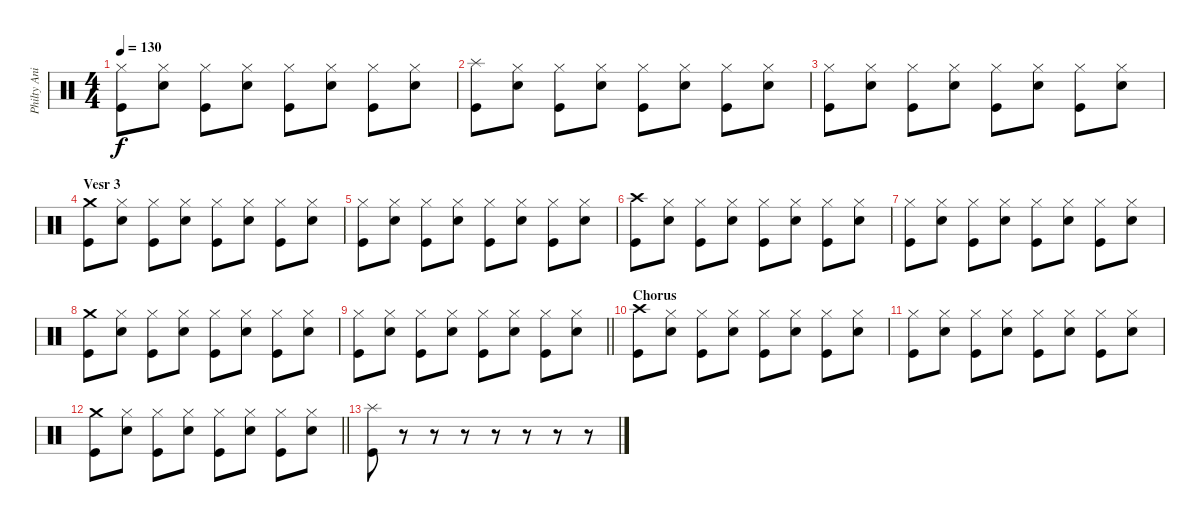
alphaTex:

\track ("Philty Animal Taylor" "Philty Ani") {instrument percussion}
\staff {score}
\articulation defaults
\ts (4 4)
\tempo 130
\clef neutral
\ks c
("Hi-Hat (closed)" "Kick (hit)").8{dy f} ("Hi-Hat (closed)" "Electric Snare (hit)").8 ("Hi-Hat (closed)" "Kick (hit)").8 ("Hi-Hat (closed)" "Electric Snare (hit)").8 ("Hi-Hat (closed)" "Kick (hit)").8 ("Hi-Hat (closed)" "Electric Snare (hit)").8 ("Hi-Hat (closed)" "Kick (hit)").8 ("Hi-Hat (closed)" "Electric Snare (hit)").8 |
("Splash (hit)" "Kick (hit)").8 ("Hi-Hat (closed)" "Electric Snare (hit)").8 ("Hi-Hat (closed)" "Kick (hit)").8 ("Hi-Hat (closed)" "Electric Snare (hit)").8 ("Hi-Hat (closed)" "Kick (hit)").8 ("Hi-Hat (closed)" "Electric Snare (hit)").8 ("Hi-Hat (closed)" "Kick (hit)").8 ("Hi-Hat (closed)" "Electric Snare (hit)").8 |
("Hi-Hat (closed)" "Kick (hit)").8 ("Hi-Hat (closed)" "Electric Snare (hit)").8 ("Hi-Hat (closed)" "Kick (hit)").8 ("Hi-Hat (closed)" "Electric Snare (hit)").8 ("Hi-Hat (closed)" "Kick (hit)").8 ("Hi-Hat (closed)" "Electric Snare (hit)").8 ("Hi-Hat (closed)" "Kick (hit)").8 ("Hi-Hat (closed)" "Electric Snare (hit)").8 |
\section ("" "Vesr 3")
("Crash medium (hit)" "Kick (hit)").8 ("Hi-Hat (closed)" "Electric Snare (hit)").8 ("Hi-Hat (closed)" "Kick (hit)").8 ("Hi-Hat (closed)" "Electric Snare (hit)").8 ("Hi-Hat (closed)" "Kick (hit)").8 ("Hi-Hat (closed)" "Electric Snare (hit)").8 ("Hi-Hat (closed)" "Kick (hit)").8 ("Hi-Hat (closed)" "Electric Snare (hit)").8 |
("Hi-Hat (closed)" "Kick (hit)").8 ("Hi-Hat (closed)" "Electric Snare (hit)").8 ("Hi-Hat (closed)" "Kick (hit)").8 ("Hi-Hat (closed)" "Electric Snare (hit)").8 ("Hi-Hat (closed)" "Kick (hit)").8 ("Hi-Hat (closed)" "Electric Snare (hit)").8 ("Hi-Hat (closed)" "Kick (hit)").8 ("Hi-Hat (closed)" "Electric Snare (hit)").8 |
("Crash high (hit)" "Kick (hit)").8 ("Hi-Hat (closed)" "Electric Snare (hit)").8 ("Hi-Hat (closed)" "Kick (hit)").8 ("Hi-Hat (closed)" "Electric Snare (hit)").8 ("Hi-Hat (closed)" "Kick (hit)").8 ("Hi-Hat (closed)" "Electric Snare (hit)").8 ("Hi-Hat (closed)" "Kick (hit)").8 ("Hi-Hat (closed)" "Electric Snare (hit)").8 |
("Hi-Hat (closed)" "Kick (hit)").8 ("Hi-Hat (closed)" "Electric Snare (hit)").8 ("Hi-Hat (closed)" "Kick (hit)").8 ("Hi-Hat (closed)" "Electric Snare (hit)").8 ("Hi-Hat (closed)" "Kick (hit)").8 ("Hi-Hat (closed)" "Electric Snare (hit)").8 ("Hi-Hat (closed)" "Kick (hit)").8 ("Hi-Hat (closed)" "Electric Snare (hit)").8 |
("Crash medium (hit)" "Kick (hit)").8 ("Hi-Hat (closed)" "Electric Snare (hit)").8 ("Hi-Hat (closed)" "Kick (hit)").8 ("Hi-Hat (closed)" "Electric Snare (hit)").8 ("Hi-Hat (closed)" "Kick (hit)").8 ("Hi-Hat (closed)" "Electric Snare (hit)").8 ("Hi-Hat (closed)" "Kick (hit)").8 ("Hi-Hat (closed)" "Electric Snare (hit)").8 |
\barLineRight lightlight
("Hi-Hat (closed)" "Kick (hit)").8 ("Hi-Hat (closed)" "Electric Snare (hit)").8 ("Hi-Hat (closed)" "Kick (hit)").8 ("Hi-Hat (closed)" "Electric Snare (hit)").8 ("Hi-Hat (closed)" "Kick (hit)").8 ("Hi-Hat (closed)" "Electric Snare (hit)").8 ("Hi-Hat (closed)" "Kick (hit)").8 ("Hi-Hat (closed)" "Electric Snare (hit)").8 |
\section ("" "Chorus")
("Crash high (hit)" "Kick (hit)").8 ("Hi-Hat (closed)" "Electric Snare (hit)").8 ("Hi-Hat (closed)" "Kick (hit)").8 ("Hi-Hat (closed)" "Electric Snare (hit)").8 ("Hi-Hat (closed)" "Kick (hit)").8 ("Hi-Hat (closed)" "Electric Snare (hit)").8 ("Hi-Hat (closed)" "Kick (hit)").8 ("Hi-Hat (closed)" "Electric Snare (hit)").8 |
("Hi-Hat (closed)" "Kick (hit)").8 ("Hi-Hat (closed)" "Electric Snare (hit)").8 ("Hi-Hat (closed)" "Kick (hit)").8 ("Hi-Hat (closed)" "Electric Snare (hit)").8 ("Hi-Hat (closed)" "Kick (hit)").8 ("Hi-Hat (closed)" "Electric Snare (hit)").8 ("Hi-Hat (closed)" "Kick (hit)").8 ("Hi-Hat (closed)" "Electric Snare (hit)").8 |
\barLineRight lightlight
("Crash medium (hit)" "Kick (hit)").8 ("Hi-Hat (closed)" "Electric Snare (hit)").8 ("Hi-Hat (closed)" "Kick (hit)").8 ("Hi-Hat (closed)" "Electric Snare (hit)").8 ("Hi-Hat (closed)" "Kick (hit)").8 ("Hi-Hat (closed)" "Electric Snare (hit)").8 ("Hi-Hat (closed)" "Kick (hit)").8 ("Hi-Hat (closed)" "Electric Snare (hit)").8 |
("Splash (hit)" "Kick (hit)").8 r.8 r.8 r.8 r.8 r.8 r.8 r.8
